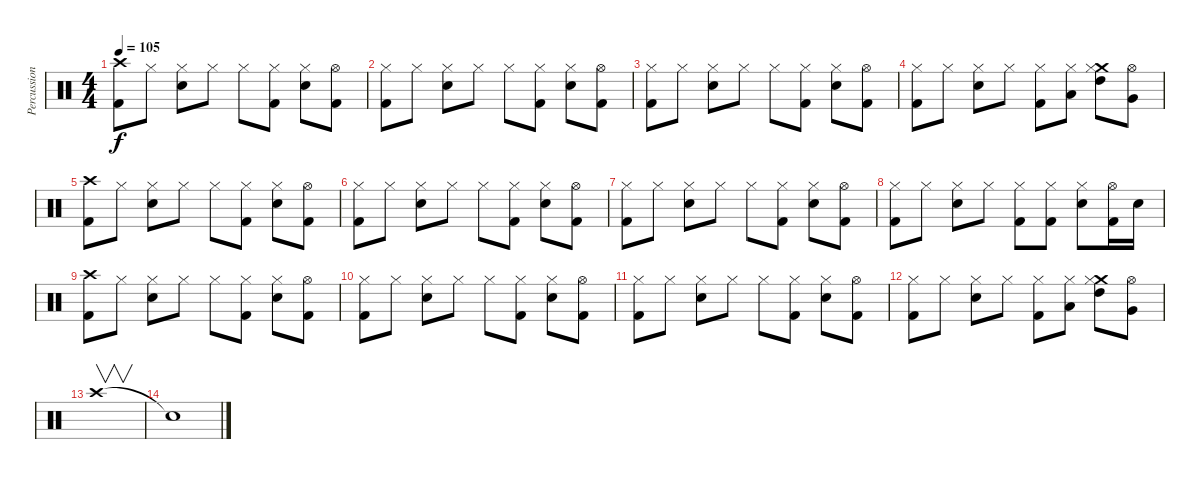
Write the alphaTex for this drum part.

\track ("Percussions" "Percussion") {instrument percussion}
\staff {score}
\articulation defaults
\ts (4 4)
\tempo 105
\clef neutral
\ks c
("Kick (hit) 2" "Crash high (hit)").8{dy f} "Hi-Hat (closed)".8 ("Snare (hit) 2" "Hi-Hat (closed)").8 "Hi-Hat (closed)".8 "Hi-Hat (closed)".8 ("Kick (hit) 2" "Hi-Hat (closed)").8 ("Snare (hit) 2" "Hi-Hat (closed)").8 ("Kick (hit) 2" "Hi-Hat (open)").8 |
("Kick (hit) 2" "Hi-Hat (closed)").8 "Hi-Hat (closed)".8 ("Snare (hit) 2" "Hi-Hat (closed)").8 "Hi-Hat (closed)".8 "Hi-Hat (closed)".8 ("Kick (hit) 2" "Hi-Hat (closed)").8 ("Snare (hit) 2" "Hi-Hat (closed)").8 ("Kick (hit) 2" "Hi-Hat (open)").8 |
("Kick (hit) 2" "Hi-Hat (closed)").8 "Hi-Hat (closed)".8 ("Snare (hit) 2" "Hi-Hat (closed)").8 "Hi-Hat (closed)".8 "Hi-Hat (closed)".8 ("Kick (hit) 2" "Hi-Hat (closed)").8 ("Snare (hit) 2" "Hi-Hat (closed)").8 ("Kick (hit) 2" "Hi-Hat (open)").8 |
("Kick (hit) 2" "Hi-Hat (closed)").8 "Hi-Hat (closed)".8 ("Snare (hit) 2" "Hi-Hat (closed)").8 "Hi-Hat (closed)".8 ("Kick (hit) 2" "Hi-Hat (closed)").8 ("Low Tom (hit)" "Hi-Hat (closed)").8 ("Crash medium (hit)" "High Tom (hit)" "Hi-Hat (closed)").8 ("Very Low Tom (hit)" "Hi-Hat (open)").8 |
("Kick (hit) 2" "Crash high (hit)").8 "Hi-Hat (closed)".8 ("Snare (hit) 2" "Hi-Hat (closed)").8 "Hi-Hat (closed)".8 "Hi-Hat (closed)".8 ("Kick (hit) 2" "Hi-Hat (closed)").8 ("Snare (hit) 2" "Hi-Hat (closed)").8 ("Kick (hit) 2" "Hi-Hat (open)").8 |
("Kick (hit) 2" "Hi-Hat (closed)").8{volume 10} "Hi-Hat (closed)".8 ("Snare (hit) 2" "Hi-Hat (closed)").8 "Hi-Hat (closed)".8 "Hi-Hat (closed)".8 ("Kick (hit) 2" "Hi-Hat (closed)").8 ("Snare (hit) 2" "Hi-Hat (closed)").8 ("Kick (hit) 2" "Hi-Hat (open)").8 |
("Kick (hit) 2" "Hi-Hat (closed)").8 "Hi-Hat (closed)".8 ("Snare (hit) 2" "Hi-Hat (closed)").8 "Hi-Hat (closed)".8 "Hi-Hat (closed)".8 ("Kick (hit) 2" "Hi-Hat (closed)").8 ("Snare (hit) 2" "Hi-Hat (closed)").8 ("Kick (hit) 2" "Hi-Hat (open)").8 |
("Kick (hit) 2" "Hi-Hat (closed)").8 "Hi-Hat (closed)".8 ("Snare (hit) 2" "Hi-Hat (closed)").8 "Hi-Hat (closed)".8 ("Kick (hit) 2" "Hi-Hat (closed)").8 ("Kick (hit) 2" "Hi-Hat (closed)").8 ("Snare (hit) 2" "Hi-Hat (closed)").8 ("Kick (hit) 2" "Hi-Hat (open)").16 "Snare (hit) 2".16 |
("Kick (hit) 2" "Crash high (hit)").8{volume 7} "Hi-Hat (closed)".8 ("Snare (hit) 2" "Hi-Hat (closed)").8 "Hi-Hat (closed)".8 "Hi-Hat (closed)".8 ("Kick (hit) 2" "Hi-Hat (closed)").8 ("Snare (hit) 2" "Hi-Hat (closed)").8 ("Kick (hit) 2" "Hi-Hat (open)").8 |
("Kick (hit) 2" "Hi-Hat (closed)").8 "Hi-Hat (closed)".8 ("Snare (hit) 2" "Hi-Hat (closed)").8 "Hi-Hat (closed)".8 "Hi-Hat (closed)".8 ("Kick (hit) 2" "Hi-Hat (closed)").8 ("Snare (hit) 2" "Hi-Hat (closed)").8 ("Kick (hit) 2" "Hi-Hat (open)").8 |
("Kick (hit) 2" "Hi-Hat (closed)").8{volume 4} "Hi-Hat (closed)".8 ("Snare (hit) 2" "Hi-Hat (closed)").8 "Hi-Hat (closed)".8 "Hi-Hat (closed)".8 ("Kick (hit) 2" "Hi-Hat (closed)").8 ("Snare (hit) 2" "Hi-Hat (closed)").8 ("Kick (hit) 2" "Hi-Hat (open)").8 |
("Kick (hit) 2" "Hi-Hat (closed)").8 "Hi-Hat (closed)".8 ("Snare (hit) 2" "Hi-Hat (closed)").8 "Hi-Hat (closed)".8 ("Kick (hit) 2" "Hi-Hat (closed)").8 ("Low Tom (hit)" "Hi-Hat (closed)").8 ("Crash medium (hit)" "High Tom (hit)" "Hi-Hat (closed)").8 ("Very Low Tom (hit)" "Hi-Hat (open)").8 |
"Crash high (hit)".1{v} |
"Snare (hit)"{t}.1
